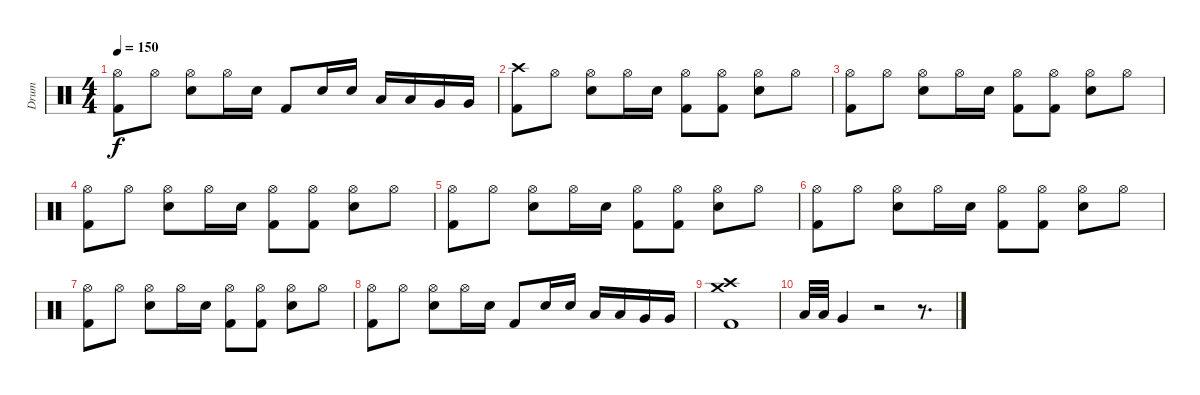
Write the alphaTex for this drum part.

\track ("Drum" "Drum") {instrument percussion}
\staff {score}
\articulation defaults
\ts (4 4)
\tempo 150
\clef neutral
\ks c
("Hi-Hat (open)" "Kick (hit) 2").8{dy f} "Hi-Hat (open)".8 ("Hi-Hat (open)" "Snare (hit) 2").8 "Hi-Hat (open)".16 "Snare (hit) 2".16 "Kick (hit) 2".8 "Snare (hit) 2".16 "Snare (hit) 2".16 "Low Tom (hit)".16 "Low Tom (hit)".16 "Very Low Tom (hit)".16 "Very Low Tom (hit)".16 |
("Crash high (hit)" "Kick (hit) 2").8 "Hi-Hat (open)".8 ("Hi-Hat (open)" "Snare (hit) 2").8 "Hi-Hat (open)".16 "Snare (hit) 2".16 ("Hi-Hat (open)" "Kick (hit) 2").8 ("Hi-Hat (open)" "Kick (hit) 2").8 ("Hi-Hat (open)" "Snare (hit) 2").8 "Hi-Hat (open)".8 |
("Hi-Hat (open)" "Kick (hit) 2").8 "Hi-Hat (open)".8 ("Hi-Hat (open)" "Snare (hit) 2").8 "Hi-Hat (open)".16 "Snare (hit) 2".16 ("Hi-Hat (open)" "Kick (hit) 2").8 ("Hi-Hat (open)" "Kick (hit) 2").8 ("Hi-Hat (open)" "Snare (hit) 2").8 "Hi-Hat (open)".8 |
("Hi-Hat (open)" "Kick (hit) 2").8 "Hi-Hat (open)".8 ("Hi-Hat (open)" "Snare (hit) 2").8 "Hi-Hat (open)".16 "Snare (hit) 2".16 ("Hi-Hat (open)" "Kick (hit) 2").8 ("Hi-Hat (open)" "Kick (hit) 2").8 ("Hi-Hat (open)" "Snare (hit) 2").8 "Hi-Hat (open)".8 |
("Hi-Hat (open)" "Kick (hit) 2").8 "Hi-Hat (open)".8 ("Hi-Hat (open)" "Snare (hit) 2").8 "Hi-Hat (open)".16 "Snare (hit) 2".16 ("Hi-Hat (open)" "Kick (hit) 2").8 ("Hi-Hat (open)" "Kick (hit) 2").8 ("Hi-Hat (open)" "Snare (hit) 2").8 "Hi-Hat (open)".8 |
("Hi-Hat (open)" "Kick (hit) 2").8 "Hi-Hat (open)".8 ("Hi-Hat (open)" "Snare (hit) 2").8 "Hi-Hat (open)".16 "Snare (hit) 2".16 ("Hi-Hat (open)" "Kick (hit) 2").8 ("Hi-Hat (open)" "Kick (hit) 2").8 ("Hi-Hat (open)" "Snare (hit) 2").8 "Hi-Hat (open)".8 |
("Hi-Hat (open)" "Kick (hit) 2").8 "Hi-Hat (open)".8 ("Hi-Hat (open)" "Snare (hit) 2").8 "Hi-Hat (open)".16 "Snare (hit) 2".16 ("Hi-Hat (open)" "Kick (hit) 2").8 ("Hi-Hat (open)" "Kick (hit) 2").8 ("Hi-Hat (open)" "Snare (hit) 2").8 "Hi-Hat (open)".8 |
("Hi-Hat (open)" "Kick (hit) 2").8 "Hi-Hat (open)".8 ("Hi-Hat (open)" "Snare (hit) 2").8 "Hi-Hat (open)".16 "Snare (hit) 2".16 "Kick (hit) 2".8 "Snare (hit) 2".16 "Snare (hit) 2".16 "Low Tom (hit)".16 "Low Tom (hit)".16 "Very Low Tom (hit)".16 "Very Low Tom (hit)".16 |
("Crash high (hit)" "Kick (hit) 2" "Crash medium (hit)").1 |
"Low Tom (hit)".32 "Low Tom (hit)".32 "Very Low Tom (hit)".4 r.2 r.8{d}
